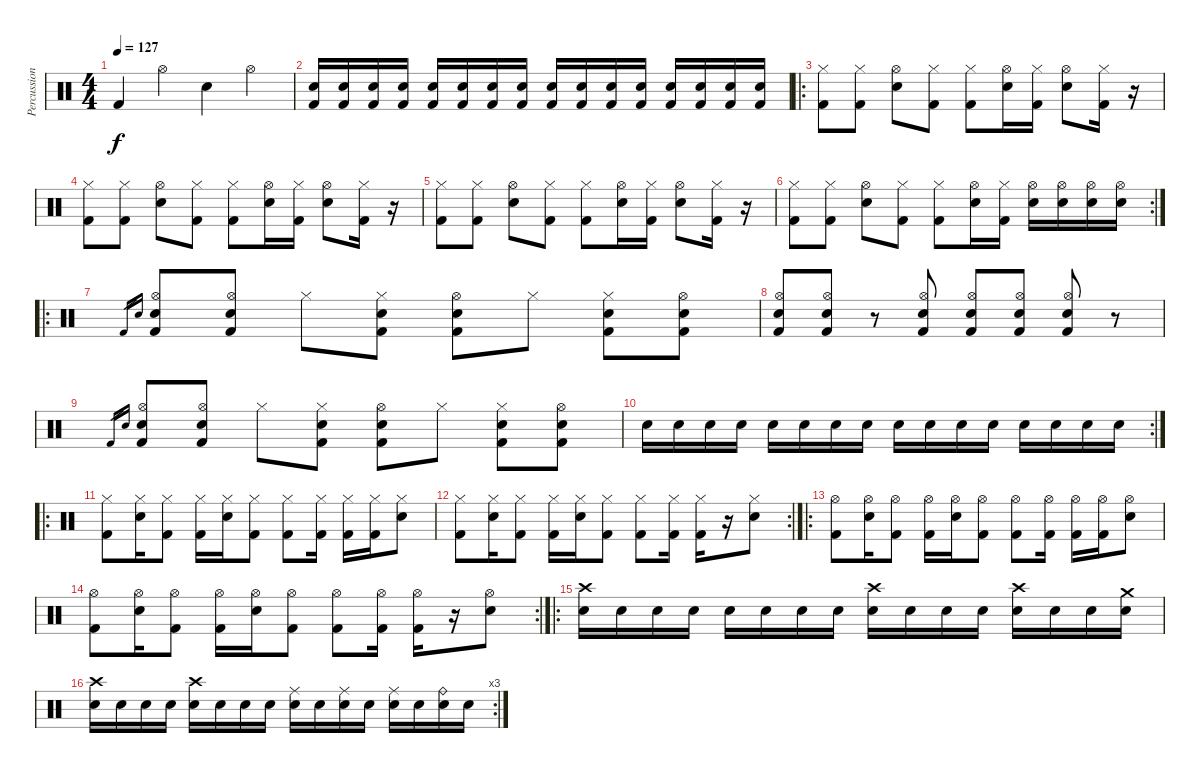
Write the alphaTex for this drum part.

\track ("Percussions" "Percussion") {instrument percussion}
\staff {score}
\articulation defaults
\ts (4 4)
\tempo 127
\clef neutral
\ks c "Kick (hit) 2".4{dy f} "Hi-Hat (open)".4 "Electric Snare (hit)".4 "Hi-Hat (open)".4
|
("Electric Snare (hit)" "Kick (hit) 2").16 ("Electric Snare (hit)" "Kick (hit) 2").16 ("Electric Snare (hit)" "Kick (hit) 2").16 ("Electric Snare (hit)" "Kick (hit) 2").16 ("Electric Snare (hit)" "Kick (hit) 2").16 ("Electric Snare (hit)" "Kick (hit) 2").16 ("Electric Snare (hit)" "Kick (hit) 2").16 ("Electric Snare (hit)" "Kick (hit) 2").16 ("Electric Snare (hit)" "Kick (hit) 2").16 ("Electric Snare (hit)" "Kick (hit) 2").16 ("Electric Snare (hit)" "Kick (hit) 2").16 ("Electric Snare (hit)" "Kick (hit) 2").16 ("Electric Snare (hit)" "Kick (hit) 2").16 ("Electric Snare (hit)" "Kick (hit) 2").16 ("Electric Snare (hit)" "Kick (hit) 2").16 ("Electric Snare (hit)" "Kick (hit) 2").16 |
\ro
("Hi-Hat (closed)" "Kick (hit) 2").8 ("Hi-Hat (closed)" "Kick (hit) 2").8 ("Hi-Hat (open)" "Electric Snare (hit)").8 ("Hi-Hat (closed)" "Kick (hit) 2").8 ("Hi-Hat (closed)" "Kick (hit) 2").8 ("Hi-Hat (open)" "Electric Snare (hit)").16 ("Hi-Hat (closed)" "Kick (hit) 2").16 ("Hi-Hat (open)" "Electric Snare (hit)").8 ("Hi-Hat (closed)" "Kick (hit) 2").16 r.16 |
("Hi-Hat (closed)" "Kick (hit) 2").8 ("Hi-Hat (closed)" "Kick (hit) 2").8 ("Hi-Hat (open)" "Electric Snare (hit)").8 ("Hi-Hat (closed)" "Kick (hit) 2").8 ("Hi-Hat (closed)" "Kick (hit) 2").8 ("Hi-Hat (open)" "Electric Snare (hit)").16 ("Hi-Hat (closed)" "Kick (hit) 2").16 ("Hi-Hat (open)" "Electric Snare (hit)").8 ("Hi-Hat (closed)" "Kick (hit) 2").16 r.16 |
("Hi-Hat (closed)" "Kick (hit) 2").8 ("Hi-Hat (closed)" "Kick (hit) 2").8 ("Hi-Hat (open)" "Electric Snare (hit)").8 ("Hi-Hat (closed)" "Kick (hit) 2").8 ("Hi-Hat (closed)" "Kick (hit) 2").8 ("Hi-Hat (open)" "Electric Snare (hit)").16 ("Hi-Hat (closed)" "Kick (hit) 2").16 ("Hi-Hat (open)" "Electric Snare (hit)").8 ("Hi-Hat (closed)" "Kick (hit) 2").16 r.16 |
\rc 2
("Hi-Hat (closed)" "Kick (hit) 2").8 ("Hi-Hat (closed)" "Kick (hit) 2").8 ("Hi-Hat (open)" "Electric Snare (hit)").8 ("Hi-Hat (closed)" "Kick (hit) 2").8 ("Hi-Hat (closed)" "Kick (hit) 2").8 ("Hi-Hat (open)" "Electric Snare (hit)").16 ("Hi-Hat (closed)" "Kick (hit) 2").16 ("Hi-Hat (open)" "Electric Snare (hit)").16 ("Hi-Hat (open)" "Electric Snare (hit)").16 ("Hi-Hat (open)" "Electric Snare (hit)").16 ("Hi-Hat (open)" "Electric Snare (hit)").16 |
\ro "Kick (hit) 2".16{gr} "Electric Snare (hit)".16{gr}
("Hi-Hat (open)" "Kick (hit) 2" "Electric Snare (hit)").8 ("Hi-Hat (open)" "Kick (hit) 2" "Electric Snare (hit)").8 "Hi-Hat (closed)".8 ("Hi-Hat (closed)" "Kick (hit) 2" "Electric Snare (hit)").8 ("Hi-Hat (open)" "Kick (hit) 2" "Electric Snare (hit)").8 "Hi-Hat (closed)".8 ("Hi-Hat (closed)" "Kick (hit) 2" "Electric Snare (hit)").8 ("Hi-Hat (open)" "Kick (hit) 2" "Electric Snare (hit)").8 |
("Hi-Hat (open)" "Electric Snare (hit)" "Kick (hit) 2").8 ("Hi-Hat (open)" "Electric Snare (hit)" "Kick (hit) 2").8 r.8 ("Hi-Hat (open)" "Electric Snare (hit)" "Kick (hit) 2").8 ("Hi-Hat (open)" "Electric Snare (hit)" "Kick (hit) 2").8 ("Hi-Hat (open)" "Electric Snare (hit)" "Kick (hit) 2").8 ("Hi-Hat (open)" "Electric Snare (hit)" "Kick (hit) 2").8 r.8 |
"Kick (hit) 2".16{gr} "Electric Snare (hit)".16{gr} ("Hi-Hat (open)" "Kick (hit) 2" "Electric Snare (hit)").8 ("Hi-Hat (open)" "Kick (hit) 2" "Electric Snare (hit)").8 "Hi-Hat (closed)".8 ("Hi-Hat (closed)" "Kick (hit) 2" "Electric Snare (hit)").8 ("Hi-Hat (open)" "Kick (hit) 2" "Electric Snare (hit)").8 "Hi-Hat (closed)".8 ("Hi-Hat (closed)" "Kick (hit) 2" "Electric Snare (hit)").8 ("Hi-Hat (open)" "Kick (hit) 2" "Electric Snare (hit)").8 |
\rc 2 "Electric Snare (hit)".16 "Electric Snare (hit)".16 "Electric Snare (hit)".16 "Electric Snare (hit)".16 "Electric Snare (hit)".16 "Electric Snare (hit)".16 "Electric Snare (hit)".16 "Electric Snare (hit)".16 "Electric Snare (hit)".16 "Electric Snare (hit)".16 "Electric Snare (hit)".16 "Electric Snare (hit)".16 "Electric Snare (hit)".16 "Electric Snare (hit)".16 "Electric Snare (hit)".16 "Electric Snare (hit)".16
|
\ro
("Hi-Hat (closed)" "Kick (hit) 2").8 ("Hi-Hat (closed)" "Electric Snare (hit)").16 ("Hi-Hat (closed)" "Kick (hit) 2").8 ("Hi-Hat (closed)" "Kick (hit) 2").16 ("Hi-Hat (closed)" "Electric Snare (hit)").16 ("Hi-Hat (closed)" "Kick (hit) 2").8 ("Hi-Hat (closed)" "Kick (hit) 2").8 ("Hi-Hat (closed)" "Kick (hit) 2").16 ("Hi-Hat (closed)" "Kick (hit) 2").16 ("Hi-Hat (closed)" "Kick (hit) 2").16 ("Hi-Hat (closed)" "Electric Snare (hit)").8 |
\rc 2
("Hi-Hat (closed)" "Kick (hit) 2").8 ("Hi-Hat (closed)" "Electric Snare (hit)").16 ("Hi-Hat (closed)" "Kick (hit) 2").8 ("Hi-Hat (closed)" "Kick (hit) 2").16 ("Hi-Hat (closed)" "Electric Snare (hit)").16 ("Hi-Hat (closed)" "Kick (hit) 2").8 ("Hi-Hat (closed)" "Kick (hit) 2").8 ("Hi-Hat (closed)" "Kick (hit) 2").16 ("Hi-Hat (closed)" "Kick (hit) 2").16 r.16 ("Hi-Hat (closed)" "Electric Snare (hit)").8 |
\ro
("Hi-Hat (open)" "Kick (hit) 2").8 ("Hi-Hat (open)" "Electric Snare (hit)").16 ("Hi-Hat (open)" "Kick (hit) 2").8 ("Hi-Hat (open)" "Kick (hit) 2").16 ("Hi-Hat (open)" "Electric Snare (hit)").16 ("Hi-Hat (open)" "Kick (hit) 2").8 ("Hi-Hat (open)" "Kick (hit) 2").8 ("Hi-Hat (open)" "Kick (hit) 2").16 ("Hi-Hat (open)" "Kick (hit) 2").16 ("Hi-Hat (open)" "Kick (hit) 2").16 ("Hi-Hat (open)" "Electric Snare (hit)").8 |
\rc 2
("Hi-Hat (open)" "Kick (hit) 2").8 ("Hi-Hat (open)" "Electric Snare (hit)").16 ("Hi-Hat (open)" "Kick (hit) 2").8 ("Hi-Hat (open)" "Kick (hit) 2").16 ("Hi-Hat (open)" "Electric Snare (hit)").16 ("Hi-Hat (open)" "Kick (hit) 2").8 ("Hi-Hat (open)" "Kick (hit) 2").8 ("Hi-Hat (open)" "Kick (hit) 2").16 ("Hi-Hat (open)" "Kick (hit) 2").16 r.16 ("Hi-Hat (open)" "Electric Snare (hit)").8 |
\ro
("Crash high (hit)" "Electric Snare (hit)").16 "Electric Snare (hit)".16 "Electric Snare (hit)".16 "Electric Snare (hit)".16 "Electric Snare (hit)".16 "Electric Snare (hit)".16 "Electric Snare (hit)".16 "Electric Snare (hit)".16 ("Crash high (hit)" "Electric Snare (hit)").16 "Electric Snare (hit)".16 "Electric Snare (hit)".16 "Electric Snare (hit)".16 ("Crash high (hit)" "Electric Snare (hit)").16 "Electric Snare (hit)".16 "Electric Snare (hit)".16 ("Crash medium (hit)" "Electric Snare (hit)").16 |
\rc 3
("Crash high (hit)" "Electric Snare (hit)").16 "Electric Snare (hit)".16 "Electric Snare (hit)".16 "Electric Snare (hit)".16 ("Crash high (hit)" "Electric Snare (hit)").16 "Electric Snare (hit)".16 "Electric Snare (hit)".16 "Electric Snare (hit)".16 ("Ride (middle)" "Electric Snare (hit)").16 "Electric Snare (hit)".16 ("Ride (middle)" "Electric Snare (hit)").16 "Electric Snare (hit)".16 ("Ride (middle)" "Electric Snare (hit)").16 "Electric Snare (hit)".16 ("Ride (bell)" "Electric Snare (hit)").16 "Electric Snare (hit)".16
